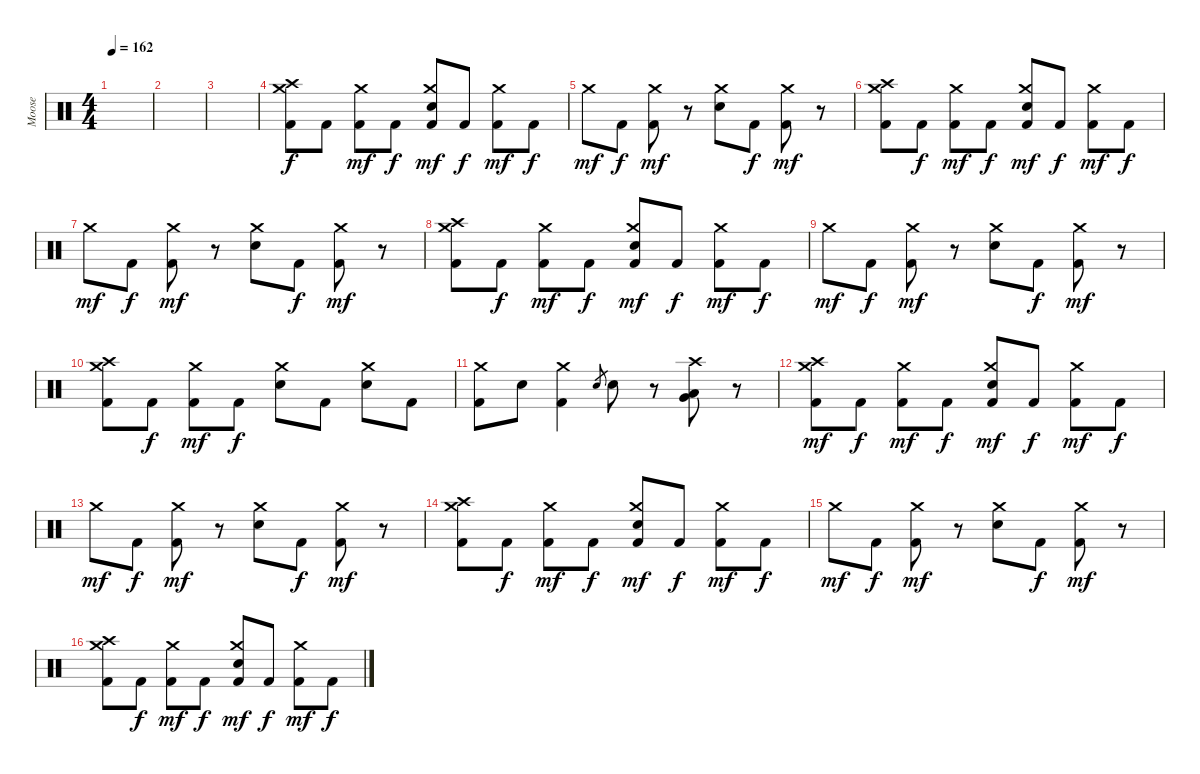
\track ("Moose" "Moose") {instrument percussion}
\staff {score}
\articulation defaults
\ts (4 4)
\tempo 162
\clef neutral
\ks c
|
|
|
("Kick (hit) 2" "Crash high (hit)" "Crash medium (hit)").8 "Kick (hit) 2".8{dy f} ("Kick (hit) 2" "Crash medium (hit)").8{dy mf} "Kick (hit) 2".8{dy f} ("Kick (hit) 2" "Snare (hit) 2" "Crash medium (hit)").8{dy mf} "Kick (hit) 2".8{dy f} ("Kick (hit) 2" "Crash medium (hit)").8{dy mf} "Kick (hit) 2".8{dy f} |
"Crash medium (hit)".8{dy mf} "Kick (hit) 2".8{dy f} ("Kick (hit) 2" "Crash medium (hit)").8{dy mf} r.8 ("Snare (hit) 2" "Crash medium (hit)").8 "Kick (hit) 2".8{dy f} ("Kick (hit) 2" "Crash medium (hit)").8{dy mf} r.8 |
("Kick (hit) 2" "Crash high (hit)" "Crash medium (hit)").8 "Kick (hit) 2".8{dy f} ("Kick (hit) 2" "Crash medium (hit)").8{dy mf} "Kick (hit) 2".8{dy f} ("Kick (hit) 2" "Snare (hit) 2" "Crash medium (hit)").8{dy mf} "Kick (hit) 2".8{dy f} ("Kick (hit) 2" "Crash medium (hit)").8{dy mf} "Kick (hit) 2".8{dy f} |
"Crash medium (hit)".8{dy mf} "Kick (hit) 2".8{dy f} ("Kick (hit) 2" "Crash medium (hit)").8{dy mf} r.8 ("Snare (hit) 2" "Crash medium (hit)").8 "Kick (hit) 2".8{dy f} ("Kick (hit) 2" "Crash medium (hit)").8{dy mf} r.8 |
("Kick (hit) 2" "Crash high (hit)" "Crash medium (hit)").8 "Kick (hit) 2".8{dy f} ("Kick (hit) 2" "Crash medium (hit)").8{dy mf} "Kick (hit) 2".8{dy f} ("Kick (hit) 2" "Snare (hit) 2" "Crash medium (hit)").8{dy mf} "Kick (hit) 2".8{dy f} ("Kick (hit) 2" "Crash medium (hit)").8{dy mf} "Kick (hit) 2".8{dy f} |
"Crash medium (hit)".8{dy mf} "Kick (hit) 2".8{dy f} ("Kick (hit) 2" "Crash medium (hit)").8{dy mf} r.8 ("Snare (hit) 2" "Crash medium (hit)").8 "Kick (hit) 2".8{dy f} ("Kick (hit) 2" "Crash medium (hit)").8{dy mf} r.8 |
("Kick (hit) 2" "Crash high (hit)" "Crash medium (hit)").8 "Kick (hit) 2".8{dy f} ("Kick (hit) 2" "Crash medium (hit)").8{dy mf} "Kick (hit) 2".8{dy f} ("Crash medium (hit)" "Snare (hit) 2").8 "Kick (hit) 2".8 ("Crash medium (hit)" "Snare (hit) 2").8 "Kick (hit) 2".8 |
("Crash medium (hit)" "Kick (hit) 2").8 "Snare (hit) 2".8 ("Crash medium (hit)" "Kick (hit) 2").4 "Snare (hit) 2".8{gr} "Snare (hit) 2".8 r.8 ("Crash high (hit)" "Very Low Tom (hit)" "Low Floor Tom (hit)").8 r.8 |
("Kick (hit) 2" "Crash high (hit)" "Crash medium (hit)").8{dy mf} "Kick (hit) 2".8{dy f} ("Kick (hit) 2" "Crash medium (hit)").8{dy mf} "Kick (hit) 2".8{dy f} ("Kick (hit) 2" "Snare (hit) 2" "Crash medium (hit)").8{dy mf} "Kick (hit) 2".8{dy f} ("Kick (hit) 2" "Crash medium (hit)").8{dy mf} "Kick (hit) 2".8{dy f} |
"Crash medium (hit)".8{dy mf} "Kick (hit) 2".8{dy f} ("Kick (hit) 2" "Crash medium (hit)").8{dy mf} r.8 ("Snare (hit) 2" "Crash medium (hit)").8 "Kick (hit) 2".8{dy f} ("Kick (hit) 2" "Crash medium (hit)").8{dy mf} r.8 |
("Kick (hit) 2" "Crash high (hit)" "Crash medium (hit)").8 "Kick (hit) 2".8{dy f} ("Kick (hit) 2" "Crash medium (hit)").8{dy mf} "Kick (hit) 2".8{dy f} ("Kick (hit) 2" "Snare (hit) 2" "Crash medium (hit)").8{dy mf} "Kick (hit) 2".8{dy f} ("Kick (hit) 2" "Crash medium (hit)").8{dy mf} "Kick (hit) 2".8{dy f} |
"Crash medium (hit)".8{dy mf} "Kick (hit) 2".8{dy f} ("Kick (hit) 2" "Crash medium (hit)").8{dy mf} r.8 ("Snare (hit) 2" "Crash medium (hit)").8 "Kick (hit) 2".8{dy f} ("Kick (hit) 2" "Crash medium (hit)").8{dy mf} r.8 |
("Kick (hit) 2" "Crash high (hit)" "Crash medium (hit)").8 "Kick (hit) 2".8{dy f} ("Kick (hit) 2" "Crash medium (hit)").8{dy mf} "Kick (hit) 2".8{dy f} ("Kick (hit) 2" "Snare (hit) 2" "Crash medium (hit)").8{dy mf} "Kick (hit) 2".8{dy f} ("Kick (hit) 2" "Crash medium (hit)").8{dy mf} "Kick (hit) 2".8{dy f}
